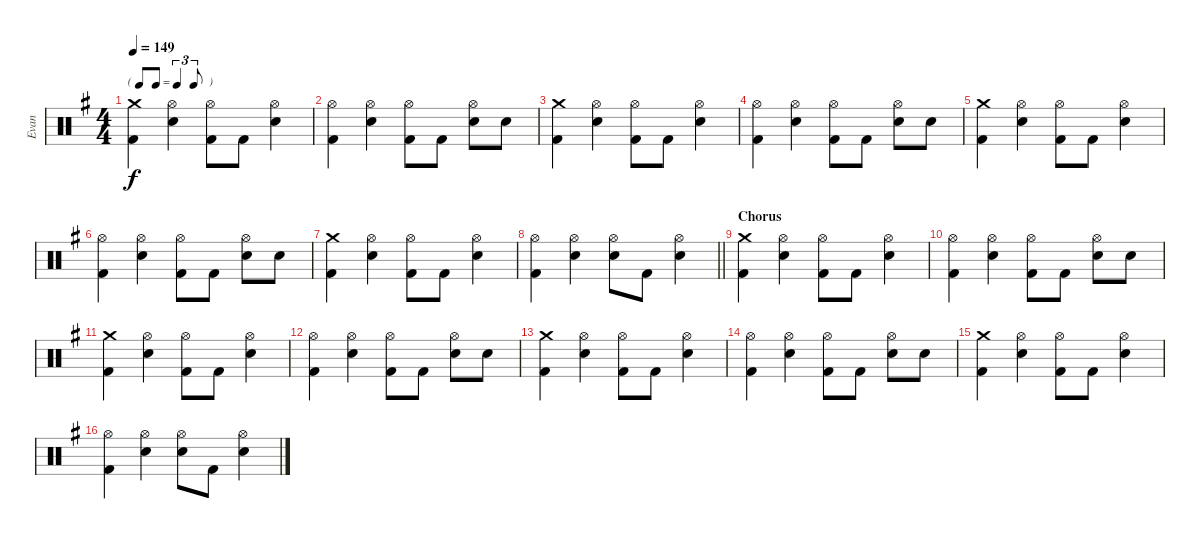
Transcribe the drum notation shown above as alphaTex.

\track ("Evan" "Evan") {instrument percussion}
\staff {score}
\articulation defaults
\ts (4 4)
\tf triplet8th
\tempo 149
\clef neutral
\ks g
("Crash medium (hit)" "Kick (hit) 2").4{dy f} ("Hi-Hat (open)" "Electric Snare (hit)").4 ("Hi-Hat (open)" "Kick (hit) 2").8 "Kick (hit) 2".8 ("Hi-Hat (open)" "Electric Snare (hit)").4 |
("Hi-Hat (open)" "Kick (hit) 2").4 ("Hi-Hat (open)" "Electric Snare (hit)").4 ("Hi-Hat (open)" "Kick (hit) 2").8 "Kick (hit) 2".8 ("Hi-Hat (open)" "Electric Snare (hit)").8 "Electric Snare (hit)".8 |
("Crash medium (hit)" "Kick (hit) 2").4 ("Hi-Hat (open)" "Electric Snare (hit)").4 ("Hi-Hat (open)" "Kick (hit) 2").8 "Kick (hit) 2".8 ("Hi-Hat (open)" "Electric Snare (hit)").4 |
("Hi-Hat (open)" "Kick (hit) 2").4 ("Hi-Hat (open)" "Electric Snare (hit)").4 ("Hi-Hat (open)" "Kick (hit) 2").8 "Kick (hit) 2".8 ("Hi-Hat (open)" "Electric Snare (hit)").8 "Electric Snare (hit)".8 |
("Crash medium (hit)" "Kick (hit) 2").4 ("Hi-Hat (open)" "Electric Snare (hit)").4 ("Hi-Hat (open)" "Kick (hit) 2").8 "Kick (hit) 2".8 ("Hi-Hat (open)" "Electric Snare (hit)").4 |
("Hi-Hat (open)" "Kick (hit) 2").4 ("Hi-Hat (open)" "Electric Snare (hit)").4 ("Hi-Hat (open)" "Kick (hit) 2").8 "Kick (hit) 2".8 ("Hi-Hat (open)" "Electric Snare (hit)").8 "Electric Snare (hit)".8 |
("Crash medium (hit)" "Kick (hit) 2").4 ("Hi-Hat (open)" "Electric Snare (hit)").4 ("Hi-Hat (open)" "Kick (hit) 2").8 "Kick (hit) 2".8 ("Hi-Hat (open)" "Electric Snare (hit)").4 |
\barLineRight lightlight
("Hi-Hat (open)" "Kick (hit) 2").4 ("Hi-Hat (open)" "Electric Snare (hit)").4 ("Hi-Hat (open)" "Electric Snare (hit)").8 "Kick (hit) 2".8 ("Hi-Hat (open)" "Electric Snare (hit)").4 |
\section ("" "Chorus")
("Crash medium (hit)" "Kick (hit) 2").4 ("Hi-Hat (open)" "Electric Snare (hit)").4 ("Hi-Hat (open)" "Kick (hit) 2").8 "Kick (hit) 2".8 ("Hi-Hat (open)" "Electric Snare (hit)").4 |
("Hi-Hat (open)" "Kick (hit) 2").4 ("Hi-Hat (open)" "Electric Snare (hit)").4 ("Hi-Hat (open)" "Kick (hit) 2").8 "Kick (hit) 2".8 ("Hi-Hat (open)" "Electric Snare (hit)").8 "Electric Snare (hit)".8 |
("Crash medium (hit)" "Kick (hit) 2").4 ("Hi-Hat (open)" "Electric Snare (hit)").4 ("Hi-Hat (open)" "Kick (hit) 2").8 "Kick (hit) 2".8 ("Hi-Hat (open)" "Electric Snare (hit)").4 |
("Hi-Hat (open)" "Kick (hit) 2").4 ("Hi-Hat (open)" "Electric Snare (hit)").4 ("Hi-Hat (open)" "Kick (hit) 2").8 "Kick (hit) 2".8 ("Hi-Hat (open)" "Electric Snare (hit)").8 "Electric Snare (hit)".8 |
("Crash medium (hit)" "Kick (hit) 2").4 ("Hi-Hat (open)" "Electric Snare (hit)").4 ("Hi-Hat (open)" "Kick (hit) 2").8 "Kick (hit) 2".8 ("Hi-Hat (open)" "Electric Snare (hit)").4 |
("Hi-Hat (open)" "Kick (hit) 2").4 ("Hi-Hat (open)" "Electric Snare (hit)").4 ("Hi-Hat (open)" "Kick (hit) 2").8 "Kick (hit) 2".8 ("Hi-Hat (open)" "Electric Snare (hit)").8 "Electric Snare (hit)".8 |
("Crash medium (hit)" "Kick (hit) 2").4 ("Hi-Hat (open)" "Electric Snare (hit)").4 ("Hi-Hat (open)" "Kick (hit) 2").8 "Kick (hit) 2".8 ("Hi-Hat (open)" "Electric Snare (hit)").4 |
("Hi-Hat (open)" "Kick (hit) 2").4 ("Hi-Hat (open)" "Electric Snare (hit)").4 ("Hi-Hat (open)" "Electric Snare (hit)").8 "Kick (hit) 2".8 ("Hi-Hat (open)" "Electric Snare (hit)").4
